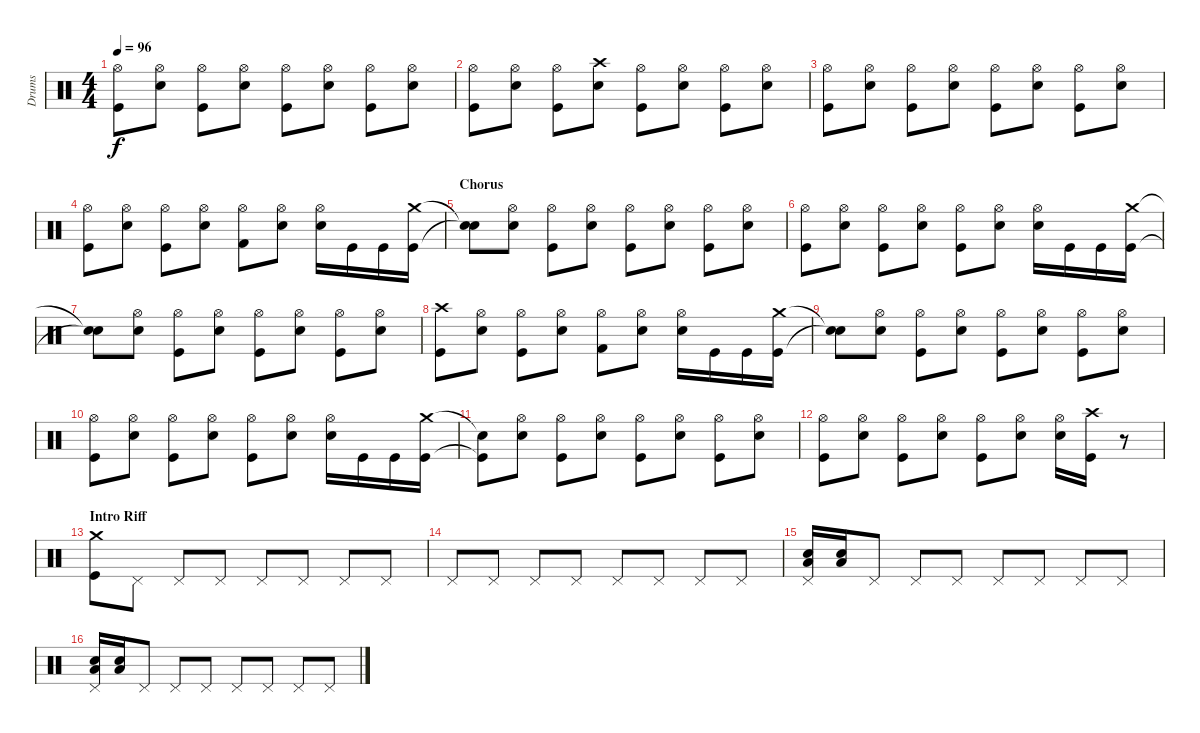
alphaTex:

\track ("Drums" "Drums") {instrument percussion}
\staff {score}
\articulation defaults
\ts (4 4)
\tempo 96
\clef neutral
\ks c
("Hi-Hat (open)" "Kick (hit)").8{dy f} ("Hi-Hat (open)" "Snare (hit) 2").8 ("Hi-Hat (open)" "Kick (hit)").8 ("Hi-Hat (open)" "Snare (hit) 2").8 ("Hi-Hat (open)" "Kick (hit)").8 ("Hi-Hat (open)" "Snare (hit) 2").8 ("Hi-Hat (open)" "Kick (hit)").8 ("Hi-Hat (open)" "Snare (hit) 2").8 |
("Hi-Hat (open)" "Kick (hit)").8 ("Hi-Hat (open)" "Snare (hit) 2").8 ("Hi-Hat (open)" "Kick (hit)").8 ("Crash high (hit)" "Snare (hit) 2").8 ("Hi-Hat (open)" "Kick (hit)").8 ("Hi-Hat (open)" "Snare (hit) 2").8 ("Hi-Hat (open)" "Kick (hit)").8 ("Hi-Hat (open)" "Snare (hit) 2").8 |
("Hi-Hat (open)" "Kick (hit)").8 ("Hi-Hat (open)" "Snare (hit) 2").8 ("Hi-Hat (open)" "Kick (hit)").8 ("Hi-Hat (open)" "Snare (hit) 2").8 ("Hi-Hat (open)" "Kick (hit)").8 ("Hi-Hat (open)" "Snare (hit) 2").8 ("Hi-Hat (open)" "Kick (hit)").8 ("Hi-Hat (open)" "Snare (hit) 2").8 |
("Hi-Hat (open)" "Kick (hit)").8 ("Hi-Hat (open)" "Snare (hit) 2").8 ("Hi-Hat (open)" "Kick (hit)").8 ("Hi-Hat (open)" "Snare (hit) 2").8 ("Hi-Hat (open)" "Kick (hit) 2").8 ("Hi-Hat (open)" "Snare (hit) 2").8 ("Hi-Hat (open)" "Snare (hit) 2").16 "Kick (hit)".16 "Kick (hit)".16 ("Crash medium (hit)" "Kick (hit)").16 |
\section ("" "Chorus")
("Snare (hit)"{t} "Snare (hit)"{t}).8 ("Hi-Hat (open)" "Snare (hit) 2").8 ("Hi-Hat (open)" "Kick (hit)").8 ("Hi-Hat (open)" "Snare (hit) 2").8 ("Hi-Hat (open)" "Kick (hit)").8 ("Hi-Hat (open)" "Snare (hit) 2").8 ("Hi-Hat (open)" "Kick (hit)").8 ("Hi-Hat (open)" "Snare (hit) 2").8 |
("Hi-Hat (open)" "Kick (hit)").8 ("Hi-Hat (open)" "Snare (hit) 2").8 ("Hi-Hat (open)" "Kick (hit)").8 ("Hi-Hat (open)" "Snare (hit) 2").8 ("Hi-Hat (open)" "Kick (hit)").8 ("Hi-Hat (open)" "Snare (hit) 2").8 ("Hi-Hat (open)" "Snare (hit) 2").16 "Kick (hit)".16 "Kick (hit)".16 ("Crash medium (hit)" "Kick (hit)").16 |
("Snare (hit)"{t} "Snare (hit)"{t}).8 ("Hi-Hat (open)" "Snare (hit) 2").8 ("Hi-Hat (open)" "Kick (hit)").8 ("Hi-Hat (open)" "Snare (hit) 2").8 ("Hi-Hat (open)" "Kick (hit)").8 ("Hi-Hat (open)" "Snare (hit) 2").8 ("Hi-Hat (open)" "Kick (hit)").8 ("Hi-Hat (open)" "Snare (hit) 2").8 |
("Crash high (hit)" "Kick (hit)").8 ("Hi-Hat (open)" "Snare (hit) 2").8 ("Hi-Hat (open)" "Kick (hit)").8 ("Hi-Hat (open)" "Snare (hit) 2").8 ("Hi-Hat (open)" "Kick (hit) 2").8 ("Hi-Hat (open)" "Snare (hit) 2").8 ("Hi-Hat (open)" "Snare (hit) 2").16 "Kick (hit)".16 "Kick (hit)".16 ("Crash medium (hit)" "Kick (hit)").16 |
("Snare (hit)"{t} "Snare (hit)"{t}).8 ("Hi-Hat (open)" "Snare (hit) 2").8 ("Hi-Hat (open)" "Kick (hit)").8 ("Hi-Hat (open)" "Snare (hit) 2").8 ("Hi-Hat (open)" "Kick (hit)").8 ("Hi-Hat (open)" "Snare (hit) 2").8 ("Hi-Hat (open)" "Kick (hit)").8 ("Hi-Hat (open)" "Snare (hit) 2").8 |
("Hi-Hat (open)" "Kick (hit)").8 ("Hi-Hat (open)" "Snare (hit) 2").8 ("Hi-Hat (open)" "Kick (hit)").8 ("Hi-Hat (open)" "Snare (hit) 2").8 ("Hi-Hat (open)" "Kick (hit)").8 ("Hi-Hat (open)" "Snare (hit) 2").8 ("Hi-Hat (open)" "Snare (hit) 2").16 "Kick (hit)".16 "Kick (hit)".16 ("Crash medium (hit)" "Kick (hit)").16 |
("Snare (hit)"{t} "Kick (hit)"{t}).8 ("Hi-Hat (open)" "Snare (hit) 2").8 ("Hi-Hat (open)" "Kick (hit)").8 ("Hi-Hat (open)" "Snare (hit) 2").8 ("Hi-Hat (open)" "Kick (hit)").8 ("Hi-Hat (open)" "Snare (hit) 2").8 ("Hi-Hat (open)" "Kick (hit)").8 ("Hi-Hat (open)" "Snare (hit) 2").8 |
("Hi-Hat (open)" "Kick (hit)").8 ("Hi-Hat (open)" "Snare (hit) 2").8 ("Hi-Hat (open)" "Kick (hit)").8 ("Hi-Hat (open)" "Snare (hit) 2").8 ("Hi-Hat (open)" "Kick (hit)").8 ("Hi-Hat (open)" "Snare (hit) 2").8 ("Hi-Hat (open)" "Snare (hit) 2").16 ("Crash high (hit)" "Kick (hit)").16 r.8 |
\section ("" "Intro Riff")
("Crash medium (hit)" "Kick (hit)").8 "Pedal Hi-Hat (hit)".8 "Pedal Hi-Hat (hit)".8 "Pedal Hi-Hat (hit)".8 "Pedal Hi-Hat (hit)".8 "Pedal Hi-Hat (hit)".8 "Pedal Hi-Hat (hit)".8 "Pedal Hi-Hat (hit)".8 |
"Pedal Hi-Hat (hit)".8 "Pedal Hi-Hat (hit)".8 "Pedal Hi-Hat (hit)".8 "Pedal Hi-Hat (hit)".8 "Pedal Hi-Hat (hit)".8 "Pedal Hi-Hat (hit)".8 "Pedal Hi-Hat (hit)".8 "Pedal Hi-Hat (hit)".8 |
("Pedal Hi-Hat (hit)" "Low Floor Tom (hit)" "Snare (hit) 2").16 ("Low Floor Tom (hit)" "Snare (hit) 2").16 "Pedal Hi-Hat (hit)".8 "Pedal Hi-Hat (hit)".8 "Pedal Hi-Hat (hit)".8 "Pedal Hi-Hat (hit)".8 "Pedal Hi-Hat (hit)".8 "Pedal Hi-Hat (hit)".8 "Pedal Hi-Hat (hit)".8 |
("Pedal Hi-Hat (hit)" "Low Floor Tom (hit)" "Snare (hit) 2").16 ("Low Floor Tom (hit)" "Snare (hit) 2").16 "Pedal Hi-Hat (hit)".8 "Pedal Hi-Hat (hit)".8 "Pedal Hi-Hat (hit)".8 "Pedal Hi-Hat (hit)".8 "Pedal Hi-Hat (hit)".8 "Pedal Hi-Hat (hit)".8 "Pedal Hi-Hat (hit)".8
